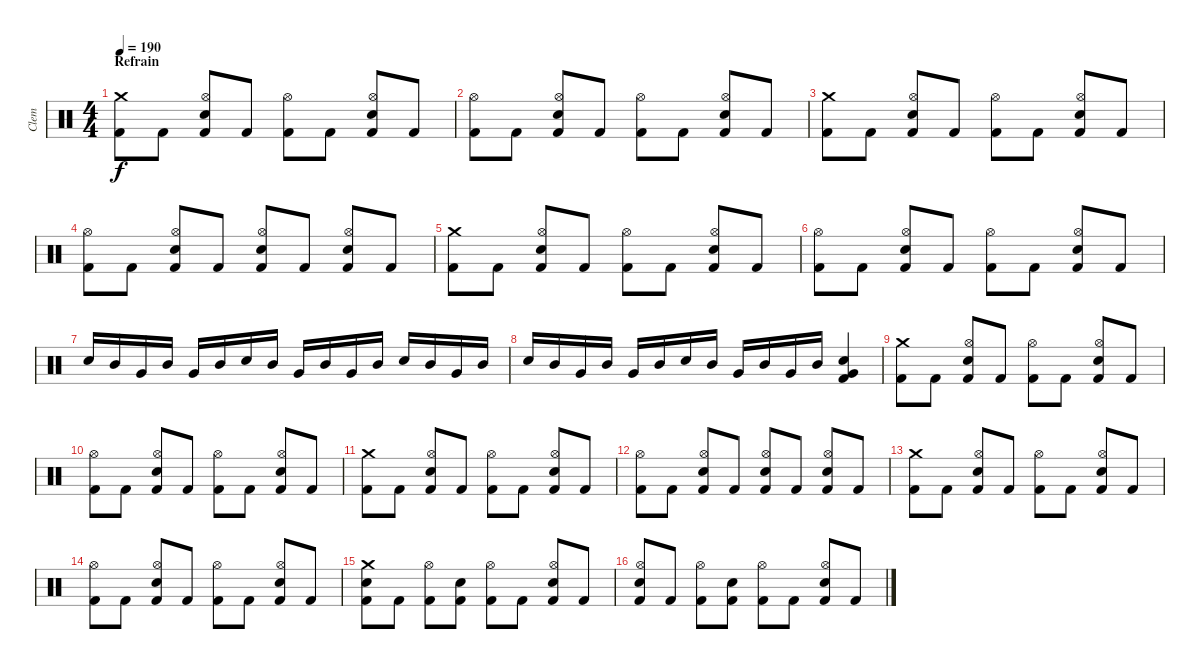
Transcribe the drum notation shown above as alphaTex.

\track ("Clem" "Clem") {instrument percussion}
\staff {score}
\articulation defaults
\ts (4 4)
\section ("" "Refrain")
\tempo 190
\clef neutral
\ks c
("Crash medium (hit)" "Kick (hit) 2").8{dy f} "Kick (hit) 2".8 ("Hi-Hat (open)" "Electric Snare (hit)" "Kick (hit) 2").8 "Kick (hit) 2".8 ("Hi-Hat (open)" "Kick (hit) 2").8 "Kick (hit) 2".8 ("Hi-Hat (open)" "Electric Snare (hit)" "Kick (hit) 2").8 "Kick (hit) 2".8 |
("Hi-Hat (open)" "Kick (hit) 2").8 "Kick (hit) 2".8 ("Hi-Hat (open)" "Electric Snare (hit)" "Kick (hit) 2").8 "Kick (hit) 2".8 ("Hi-Hat (open)" "Kick (hit) 2").8 "Kick (hit) 2".8 ("Hi-Hat (open)" "Electric Snare (hit)" "Kick (hit) 2").8 "Kick (hit) 2".8 |
("Crash medium (hit)" "Kick (hit) 2").8 "Kick (hit) 2".8 ("Hi-Hat (open)" "Electric Snare (hit)" "Kick (hit) 2").8 "Kick (hit) 2".8 ("Hi-Hat (open)" "Kick (hit) 2").8 "Kick (hit) 2".8 ("Hi-Hat (open)" "Electric Snare (hit)" "Kick (hit) 2").8 "Kick (hit) 2".8 |
("Hi-Hat (open)" "Kick (hit) 2").8 "Kick (hit) 2".8 ("Hi-Hat (open)" "Electric Snare (hit)" "Kick (hit) 2").8 "Kick (hit) 2".8 ("Hi-Hat (open)" "Electric Snare (hit)" "Kick (hit) 2").8 "Kick (hit) 2".8 ("Hi-Hat (open)" "Electric Snare (hit)" "Kick (hit) 2").8 "Kick (hit) 2".8 |
("Crash medium (hit)" "Kick (hit) 2").8 "Kick (hit) 2".8 ("Hi-Hat (open)" "Electric Snare (hit)" "Kick (hit) 2").8 "Kick (hit) 2".8 ("Hi-Hat (open)" "Kick (hit) 2").8 "Kick (hit) 2".8 ("Hi-Hat (open)" "Electric Snare (hit)" "Kick (hit) 2").8 "Kick (hit) 2".8 |
("Hi-Hat (open)" "Kick (hit) 2").8 "Kick (hit) 2".8 ("Hi-Hat (open)" "Electric Snare (hit)" "Kick (hit) 2").8 "Kick (hit) 2".8 ("Hi-Hat (open)" "Kick (hit) 2").8 "Kick (hit) 2".8 ("Hi-Hat (open)" "Electric Snare (hit)" "Kick (hit) 2").8 "Kick (hit) 2".8 |
"Electric Snare (hit)".16 "Mid Tom (hit)".16 "Very Low Tom (hit)".16 "Mid Tom (hit)".16 "Very Low Tom (hit)".16 "Mid Tom (hit)".16 "Electric Snare (hit)".16 "Mid Tom (hit)".16 "Very Low Tom (hit)".16 "Mid Tom (hit)".16 "Very Low Tom (hit)".16 "Mid Tom (hit)".16 "Electric Snare (hit)".16 "Mid Tom (hit)".16 "Very Low Tom (hit)".16 "Mid Tom (hit)".16 |
"Electric Snare (hit)".16 "Mid Tom (hit)".16 "Very Low Tom (hit)".16 "Mid Tom (hit)".16 "Very Low Tom (hit)".16 "Mid Tom (hit)".16 "Electric Snare (hit)".16 "Mid Tom (hit)".16 "Very Low Tom (hit)".16 "Mid Tom (hit)".16 "Very Low Tom (hit)".16 "Mid Tom (hit)".16 ("Electric Snare (hit)" "Very Low Tom (hit)" "Kick (hit) 2").4 |
("Crash medium (hit)" "Kick (hit) 2").8 "Kick (hit) 2".8 ("Hi-Hat (open)" "Electric Snare (hit)" "Kick (hit) 2").8 "Kick (hit) 2".8 ("Hi-Hat (open)" "Kick (hit) 2").8 "Kick (hit) 2".8 ("Hi-Hat (open)" "Electric Snare (hit)" "Kick (hit) 2").8 "Kick (hit) 2".8 |
("Hi-Hat (open)" "Kick (hit) 2").8 "Kick (hit) 2".8 ("Hi-Hat (open)" "Electric Snare (hit)" "Kick (hit) 2").8 "Kick (hit) 2".8 ("Hi-Hat (open)" "Kick (hit) 2").8 "Kick (hit) 2".8 ("Hi-Hat (open)" "Electric Snare (hit)" "Kick (hit) 2").8 "Kick (hit) 2".8 |
("Crash medium (hit)" "Kick (hit) 2").8 "Kick (hit) 2".8 ("Hi-Hat (open)" "Electric Snare (hit)" "Kick (hit) 2").8 "Kick (hit) 2".8 ("Hi-Hat (open)" "Kick (hit) 2").8 "Kick (hit) 2".8 ("Hi-Hat (open)" "Electric Snare (hit)" "Kick (hit) 2").8 "Kick (hit) 2".8 |
("Hi-Hat (open)" "Kick (hit) 2").8 "Kick (hit) 2".8 ("Hi-Hat (open)" "Electric Snare (hit)" "Kick (hit) 2").8 "Kick (hit) 2".8 ("Hi-Hat (open)" "Electric Snare (hit)" "Kick (hit) 2").8 "Kick (hit) 2".8 ("Hi-Hat (open)" "Electric Snare (hit)" "Kick (hit) 2").8 "Kick (hit) 2".8 |
("Crash medium (hit)" "Kick (hit) 2").8 "Kick (hit) 2".8 ("Hi-Hat (open)" "Electric Snare (hit)" "Kick (hit) 2").8 "Kick (hit) 2".8 ("Hi-Hat (open)" "Kick (hit) 2").8 "Kick (hit) 2".8 ("Hi-Hat (open)" "Electric Snare (hit)" "Kick (hit) 2").8 "Kick (hit) 2".8 |
("Hi-Hat (open)" "Kick (hit) 2").8 "Kick (hit) 2".8 ("Hi-Hat (open)" "Electric Snare (hit)" "Kick (hit) 2").8 "Kick (hit) 2".8 ("Hi-Hat (open)" "Kick (hit) 2").8 "Kick (hit) 2".8 ("Hi-Hat (open)" "Electric Snare (hit)" "Kick (hit) 2").8 "Kick (hit) 2".8 |
("Crash medium (hit)" "Electric Snare (hit)" "Kick (hit) 2").8 "Kick (hit) 2".8 ("Hi-Hat (open)" "Kick (hit) 2").8 ("Electric Snare (hit)" "Kick (hit) 2").8 ("Hi-Hat (open)" "Kick (hit) 2").8 "Kick (hit) 2".8 ("Hi-Hat (open)" "Electric Snare (hit)" "Kick (hit) 2").8 "Kick (hit) 2".8 |
("Hi-Hat (open)" "Electric Snare (hit)" "Kick (hit) 2").8 "Kick (hit) 2".8 ("Hi-Hat (open)" "Kick (hit) 2").8 ("Electric Snare (hit)" "Kick (hit) 2").8 ("Hi-Hat (open)" "Kick (hit) 2").8 "Kick (hit) 2".8 ("Hi-Hat (open)" "Electric Snare (hit)" "Kick (hit) 2").8 "Kick (hit) 2".8
